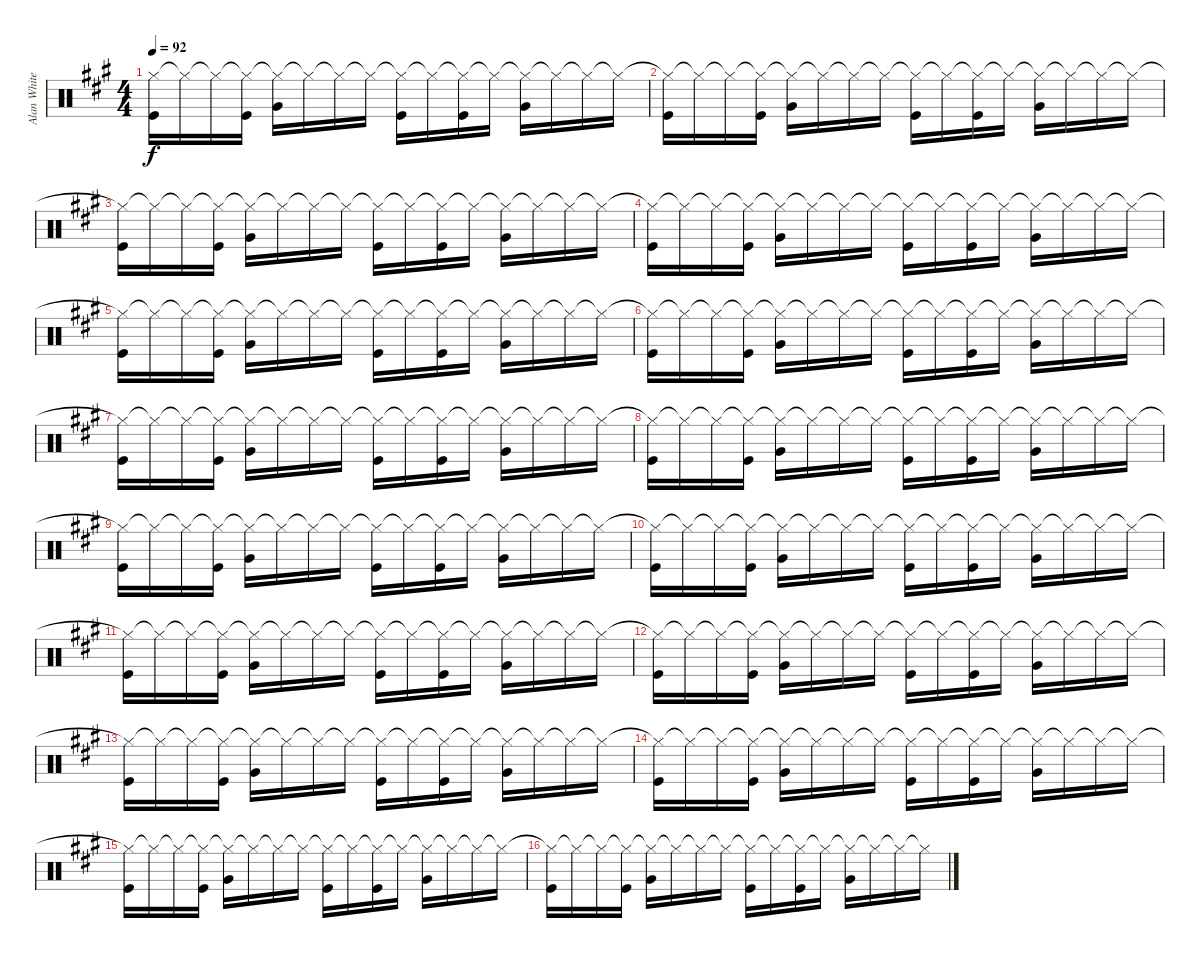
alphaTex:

\track ("Alan White" "Alan White") {instrument percussion}
\staff {score}
\articulation defaults
\ts (4 4)
\tempo 92
\clef neutral
\ks a
("Hi-Hat (closed)"{t} "Kick (hit)").16{dy f} "Hi-Hat (closed)"{t}.16 "Hi-Hat (closed)"{t}.16 ("Hi-Hat (closed)"{t} "Kick (hit)").16 ("Hi-Hat (closed)"{t} "Very Low Tom (hit)").16 "Hi-Hat (closed)"{t}.16 "Hi-Hat (closed)"{t}.16 "Hi-Hat (closed)"{t}.16 ("Hi-Hat (closed)"{t} "Kick (hit)").16 "Hi-Hat (closed)"{t}.16 ("Hi-Hat (closed)"{t} "Kick (hit)").16 "Hi-Hat (closed)"{t}.16 ("Hi-Hat (closed)"{t} "Very Low Tom (hit)").16 "Hi-Hat (closed)"{t}.16 "Hi-Hat (closed)"{t}.16 "Hi-Hat (closed)"{t}.16 |
("Hi-Hat (closed)"{t} "Kick (hit)").16 "Hi-Hat (closed)"{t}.16 "Hi-Hat (closed)"{t}.16 ("Hi-Hat (closed)"{t} "Kick (hit)").16 ("Hi-Hat (closed)"{t} "Very Low Tom (hit)").16 "Hi-Hat (closed)"{t}.16 "Hi-Hat (closed)"{t}.16 "Hi-Hat (closed)"{t}.16 ("Hi-Hat (closed)"{t} "Kick (hit)").16 "Hi-Hat (closed)"{t}.16 ("Hi-Hat (closed)"{t} "Kick (hit)").16 "Hi-Hat (closed)"{t}.16 ("Hi-Hat (closed)"{t} "Very Low Tom (hit)").16 "Hi-Hat (closed)"{t}.16 "Hi-Hat (closed)"{t}.16 "Hi-Hat (closed)"{t}.16 |
("Hi-Hat (closed)"{t} "Kick (hit)").16 "Hi-Hat (closed)"{t}.16 "Hi-Hat (closed)"{t}.16 ("Hi-Hat (closed)"{t} "Kick (hit)").16 ("Hi-Hat (closed)"{t} "Very Low Tom (hit)").16 "Hi-Hat (closed)"{t}.16 "Hi-Hat (closed)"{t}.16 "Hi-Hat (closed)"{t}.16 ("Hi-Hat (closed)"{t} "Kick (hit)").16 "Hi-Hat (closed)"{t}.16 ("Hi-Hat (closed)"{t} "Kick (hit)").16 "Hi-Hat (closed)"{t}.16 ("Hi-Hat (closed)"{t} "Very Low Tom (hit)").16 "Hi-Hat (closed)"{t}.16 "Hi-Hat (closed)"{t}.16 "Hi-Hat (closed)"{t}.16 |
("Hi-Hat (closed)"{t} "Kick (hit)").16 "Hi-Hat (closed)"{t}.16 "Hi-Hat (closed)"{t}.16 ("Hi-Hat (closed)"{t} "Kick (hit)").16 ("Hi-Hat (closed)"{t} "Very Low Tom (hit)").16 "Hi-Hat (closed)"{t}.16 "Hi-Hat (closed)"{t}.16 "Hi-Hat (closed)"{t}.16 ("Hi-Hat (closed)"{t} "Kick (hit)").16 "Hi-Hat (closed)"{t}.16 ("Hi-Hat (closed)"{t} "Kick (hit)").16 "Hi-Hat (closed)"{t}.16 ("Hi-Hat (closed)"{t} "Very Low Tom (hit)").16 "Hi-Hat (closed)"{t}.16 "Hi-Hat (closed)"{t}.16 "Hi-Hat (closed)"{t}.16 |
("Hi-Hat (closed)"{t} "Kick (hit)").16 "Hi-Hat (closed)"{t}.16 "Hi-Hat (closed)"{t}.16 ("Hi-Hat (closed)"{t} "Kick (hit)").16 ("Hi-Hat (closed)"{t} "Very Low Tom (hit)").16 "Hi-Hat (closed)"{t}.16 "Hi-Hat (closed)"{t}.16 "Hi-Hat (closed)"{t}.16 ("Hi-Hat (closed)"{t} "Kick (hit)").16 "Hi-Hat (closed)"{t}.16 ("Hi-Hat (closed)"{t} "Kick (hit)").16 "Hi-Hat (closed)"{t}.16 ("Hi-Hat (closed)"{t} "Very Low Tom (hit)").16 "Hi-Hat (closed)"{t}.16 "Hi-Hat (closed)"{t}.16 "Hi-Hat (closed)"{t}.16 |
("Hi-Hat (closed)"{t} "Kick (hit)").16 "Hi-Hat (closed)"{t}.16 "Hi-Hat (closed)"{t}.16 ("Hi-Hat (closed)"{t} "Kick (hit)").16 ("Hi-Hat (closed)"{t} "Very Low Tom (hit)").16 "Hi-Hat (closed)"{t}.16 "Hi-Hat (closed)"{t}.16 "Hi-Hat (closed)"{t}.16 ("Hi-Hat (closed)"{t} "Kick (hit)").16 "Hi-Hat (closed)"{t}.16 ("Hi-Hat (closed)"{t} "Kick (hit)").16 "Hi-Hat (closed)"{t}.16 ("Hi-Hat (closed)"{t} "Very Low Tom (hit)").16 "Hi-Hat (closed)"{t}.16 "Hi-Hat (closed)"{t}.16 "Hi-Hat (closed)"{t}.16 |
("Hi-Hat (closed)"{t} "Kick (hit)").16 "Hi-Hat (closed)"{t}.16 "Hi-Hat (closed)"{t}.16 ("Hi-Hat (closed)"{t} "Kick (hit)").16 ("Hi-Hat (closed)"{t} "Very Low Tom (hit)").16 "Hi-Hat (closed)"{t}.16 "Hi-Hat (closed)"{t}.16 "Hi-Hat (closed)"{t}.16 ("Hi-Hat (closed)"{t} "Kick (hit)").16 "Hi-Hat (closed)"{t}.16 ("Hi-Hat (closed)"{t} "Kick (hit)").16 "Hi-Hat (closed)"{t}.16 ("Hi-Hat (closed)"{t} "Very Low Tom (hit)").16 "Hi-Hat (closed)"{t}.16 "Hi-Hat (closed)"{t}.16 "Hi-Hat (closed)"{t}.16 |
("Hi-Hat (closed)"{t} "Kick (hit)").16 "Hi-Hat (closed)"{t}.16 "Hi-Hat (closed)"{t}.16 ("Hi-Hat (closed)"{t} "Kick (hit)").16 ("Hi-Hat (closed)"{t} "Very Low Tom (hit)").16 "Hi-Hat (closed)"{t}.16 "Hi-Hat (closed)"{t}.16 "Hi-Hat (closed)"{t}.16 ("Hi-Hat (closed)"{t} "Kick (hit)").16 "Hi-Hat (closed)"{t}.16 ("Hi-Hat (closed)"{t} "Kick (hit)").16 "Hi-Hat (closed)"{t}.16 ("Hi-Hat (closed)"{t} "Very Low Tom (hit)").16 "Hi-Hat (closed)"{t}.16 "Hi-Hat (closed)"{t}.16 "Hi-Hat (closed)"{t}.16 |
("Hi-Hat (closed)"{t} "Kick (hit)").16 "Hi-Hat (closed)"{t}.16 "Hi-Hat (closed)"{t}.16 ("Hi-Hat (closed)"{t} "Kick (hit)").16 ("Hi-Hat (closed)"{t} "Very Low Tom (hit)").16 "Hi-Hat (closed)"{t}.16 "Hi-Hat (closed)"{t}.16 "Hi-Hat (closed)"{t}.16 ("Hi-Hat (closed)"{t} "Kick (hit)").16 "Hi-Hat (closed)"{t}.16 ("Hi-Hat (closed)"{t} "Kick (hit)").16 "Hi-Hat (closed)"{t}.16 ("Hi-Hat (closed)"{t} "Very Low Tom (hit)").16 "Hi-Hat (closed)"{t}.16 "Hi-Hat (closed)"{t}.16 "Hi-Hat (closed)"{t}.16 |
("Hi-Hat (closed)"{t} "Kick (hit)").16 "Hi-Hat (closed)"{t}.16 "Hi-Hat (closed)"{t}.16 ("Hi-Hat (closed)"{t} "Kick (hit)").16 ("Hi-Hat (closed)"{t} "Very Low Tom (hit)").16 "Hi-Hat (closed)"{t}.16 "Hi-Hat (closed)"{t}.16 "Hi-Hat (closed)"{t}.16 ("Hi-Hat (closed)"{t} "Kick (hit)").16 "Hi-Hat (closed)"{t}.16 ("Hi-Hat (closed)"{t} "Kick (hit)").16 "Hi-Hat (closed)"{t}.16 ("Hi-Hat (closed)"{t} "Very Low Tom (hit)").16 "Hi-Hat (closed)"{t}.16 "Hi-Hat (closed)"{t}.16 "Hi-Hat (closed)"{t}.16 |
("Hi-Hat (closed)"{t} "Kick (hit)").16 "Hi-Hat (closed)"{t}.16 "Hi-Hat (closed)"{t}.16 ("Hi-Hat (closed)"{t} "Kick (hit)").16 ("Hi-Hat (closed)"{t} "Very Low Tom (hit)").16 "Hi-Hat (closed)"{t}.16 "Hi-Hat (closed)"{t}.16 "Hi-Hat (closed)"{t}.16 ("Hi-Hat (closed)"{t} "Kick (hit)").16 "Hi-Hat (closed)"{t}.16 ("Hi-Hat (closed)"{t} "Kick (hit)").16 "Hi-Hat (closed)"{t}.16 ("Hi-Hat (closed)"{t} "Very Low Tom (hit)").16 "Hi-Hat (closed)"{t}.16 "Hi-Hat (closed)"{t}.16 "Hi-Hat (closed)"{t}.16 |
("Hi-Hat (closed)"{t} "Kick (hit)").16 "Hi-Hat (closed)"{t}.16 "Hi-Hat (closed)"{t}.16 ("Hi-Hat (closed)"{t} "Kick (hit)").16 ("Hi-Hat (closed)"{t} "Very Low Tom (hit)").16 "Hi-Hat (closed)"{t}.16 "Hi-Hat (closed)"{t}.16 "Hi-Hat (closed)"{t}.16 ("Hi-Hat (closed)"{t} "Kick (hit)").16 "Hi-Hat (closed)"{t}.16 ("Hi-Hat (closed)"{t} "Kick (hit)").16 "Hi-Hat (closed)"{t}.16 ("Hi-Hat (closed)"{t} "Very Low Tom (hit)").16 "Hi-Hat (closed)"{t}.16 "Hi-Hat (closed)"{t}.16 "Hi-Hat (closed)"{t}.16 |
("Hi-Hat (closed)"{t} "Kick (hit)").16 "Hi-Hat (closed)"{t}.16 "Hi-Hat (closed)"{t}.16 ("Hi-Hat (closed)"{t} "Kick (hit)").16 ("Hi-Hat (closed)"{t} "Very Low Tom (hit)").16 "Hi-Hat (closed)"{t}.16 "Hi-Hat (closed)"{t}.16 "Hi-Hat (closed)"{t}.16 ("Hi-Hat (closed)"{t} "Kick (hit)").16 "Hi-Hat (closed)"{t}.16 ("Hi-Hat (closed)"{t} "Kick (hit)").16 "Hi-Hat (closed)"{t}.16 ("Hi-Hat (closed)"{t} "Very Low Tom (hit)").16 "Hi-Hat (closed)"{t}.16 "Hi-Hat (closed)"{t}.16 "Hi-Hat (closed)"{t}.16 |
("Hi-Hat (closed)"{t} "Kick (hit)").16 "Hi-Hat (closed)"{t}.16 "Hi-Hat (closed)"{t}.16 ("Hi-Hat (closed)"{t} "Kick (hit)").16 ("Hi-Hat (closed)"{t} "Very Low Tom (hit)").16 "Hi-Hat (closed)"{t}.16 "Hi-Hat (closed)"{t}.16 "Hi-Hat (closed)"{t}.16 ("Hi-Hat (closed)"{t} "Kick (hit)").16 "Hi-Hat (closed)"{t}.16 ("Hi-Hat (closed)"{t} "Kick (hit)").16 "Hi-Hat (closed)"{t}.16 ("Hi-Hat (closed)"{t} "Very Low Tom (hit)").16 "Hi-Hat (closed)"{t}.16 "Hi-Hat (closed)"{t}.16 "Hi-Hat (closed)"{t}.16 |
("Hi-Hat (closed)"{t} "Kick (hit)").16 "Hi-Hat (closed)"{t}.16 "Hi-Hat (closed)"{t}.16 ("Hi-Hat (closed)"{t} "Kick (hit)").16 ("Hi-Hat (closed)"{t} "Very Low Tom (hit)").16 "Hi-Hat (closed)"{t}.16 "Hi-Hat (closed)"{t}.16 "Hi-Hat (closed)"{t}.16 ("Hi-Hat (closed)"{t} "Kick (hit)").16 "Hi-Hat (closed)"{t}.16 ("Hi-Hat (closed)"{t} "Kick (hit)").16 "Hi-Hat (closed)"{t}.16 ("Hi-Hat (closed)"{t} "Very Low Tom (hit)").16 "Hi-Hat (closed)"{t}.16 "Hi-Hat (closed)"{t}.16 "Hi-Hat (closed)"{t}.16 |
("Hi-Hat (closed)"{t} "Kick (hit)").16 "Hi-Hat (closed)"{t}.16 "Hi-Hat (closed)"{t}.16 ("Hi-Hat (closed)"{t} "Kick (hit)").16 ("Hi-Hat (closed)"{t} "Very Low Tom (hit)").16 "Hi-Hat (closed)"{t}.16 "Hi-Hat (closed)"{t}.16 "Hi-Hat (closed)"{t}.16 ("Hi-Hat (closed)"{t} "Kick (hit)").16 "Hi-Hat (closed)"{t}.16 ("Hi-Hat (closed)"{t} "Kick (hit)").16 "Hi-Hat (closed)"{t}.16 ("Hi-Hat (closed)"{t} "Very Low Tom (hit)").16 "Hi-Hat (closed)"{t}.16 "Hi-Hat (closed)"{t}.16 "Hi-Hat (closed)"{t}.16
